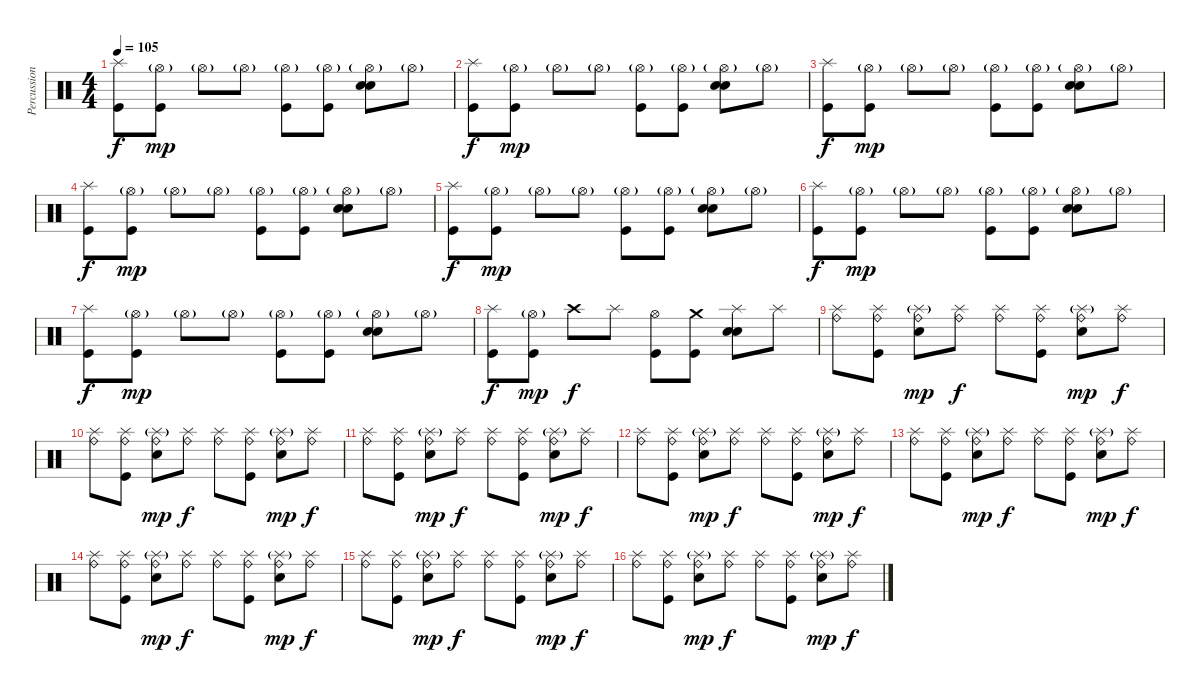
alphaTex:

\track ("Percussion" "Percussion") {instrument percussion}
\staff {score}
\articulation defaults
\ts (4 4)
\tempo 105
\clef neutral
\ks c
("Splash (hit)" "Kick (hit)").8{dy f} ("Hi-Hat (open)"{g} "Kick (hit)").8{dy mp} "Hi-Hat (open)"{g}.8 "Hi-Hat (open)"{g}.8 ("Hi-Hat (open)"{g} "Kick (hit)").8 ("Hi-Hat (open)"{g} "Kick (hit)").8 ("Snare (hit) 2" "Hi-Hat (open)"{g} "Snare (hit) 2").8 "Hi-Hat (open)"{g}.8 |
("Splash (hit)" "Kick (hit)").8{dy f} ("Hi-Hat (open)"{g} "Kick (hit)").8{dy mp} "Hi-Hat (open)"{g}.8 "Hi-Hat (open)"{g}.8 ("Hi-Hat (open)"{g} "Kick (hit)").8 ("Hi-Hat (open)"{g} "Kick (hit)").8 ("Snare (hit) 2" "Hi-Hat (open)"{g} "Snare (hit) 2").8 "Hi-Hat (open)"{g}.8 |
("Splash (hit)" "Kick (hit)").8{dy f} ("Hi-Hat (open)"{g} "Kick (hit)").8{dy mp} "Hi-Hat (open)"{g}.8 "Hi-Hat (open)"{g}.8 ("Hi-Hat (open)"{g} "Kick (hit)").8 ("Hi-Hat (open)"{g} "Kick (hit)").8 ("Snare (hit) 2" "Hi-Hat (open)"{g} "Snare (hit) 2").8 "Hi-Hat (open)"{g}.8 |
("Splash (hit)" "Kick (hit)").8{dy f} ("Hi-Hat (open)"{g} "Kick (hit)").8{dy mp} "Hi-Hat (open)"{g}.8 "Hi-Hat (open)"{g}.8 ("Hi-Hat (open)"{g} "Kick (hit)").8 ("Hi-Hat (open)"{g} "Kick (hit)").8 ("Snare (hit) 2" "Hi-Hat (open)"{g} "Snare (hit) 2").8 "Hi-Hat (open)"{g}.8 |
("Splash (hit)" "Kick (hit)").8{dy f} ("Hi-Hat (open)"{g} "Kick (hit)").8{dy mp} "Hi-Hat (open)"{g}.8 "Hi-Hat (open)"{g}.8 ("Hi-Hat (open)"{g} "Kick (hit)").8 ("Hi-Hat (open)"{g} "Kick (hit)").8 ("Snare (hit) 2" "Hi-Hat (open)"{g} "Snare (hit) 2").8 "Hi-Hat (open)"{g}.8 |
("Splash (hit)" "Kick (hit)").8{dy f} ("Hi-Hat (open)"{g} "Kick (hit)").8{dy mp} "Hi-Hat (open)"{g}.8 "Hi-Hat (open)"{g}.8 ("Hi-Hat (open)"{g} "Kick (hit)").8 ("Hi-Hat (open)"{g} "Kick (hit)").8 ("Snare (hit) 2" "Hi-Hat (open)"{g} "Snare (hit) 2").8 "Hi-Hat (open)"{g}.8 |
("Splash (hit)" "Kick (hit)").8{dy f} ("Hi-Hat (open)"{g} "Kick (hit)").8{dy mp} "Hi-Hat (open)"{g}.8 "Hi-Hat (open)"{g}.8 ("Hi-Hat (open)"{g} "Kick (hit)").8 ("Hi-Hat (open)"{g} "Kick (hit)").8 ("Snare (hit) 2" "Hi-Hat (open)"{g} "Snare (hit) 2").8 "Hi-Hat (open)"{g}.8 |
("Splash (hit)" "Kick (hit)").8{dy f} ("Hi-Hat (open)"{g} "Kick (hit)").8{dy mp} "Crash high (hit)".8{dy f} "Splash (hit)".8 ("Hi-Hat (open)" "Kick (hit)").8 ("Crash medium (hit)" "Kick (hit)").8 ("Snare (hit) 2" "Splash (hit)" "Snare (hit) 2").8 "Splash (hit)".8 |
("Ride (bell)" "Splash (hit)").8 ("Kick (hit)" "Ride (bell)" "Splash (hit)").8 ("Snare (hit) 2" "Ride (bell)" "Splash (hit)"{g}).8{dy mp} ("Ride (bell)" "Splash (hit)").8{dy f} ("Ride (bell)" "Splash (hit)").8 ("Kick (hit)" "Ride (bell)" "Splash (hit)").8 ("Snare (hit) 2" "Ride (bell)" "Splash (hit)"{g}).8{dy mp} ("Ride (bell)" "Splash (hit)").8{dy f} |
("Ride (bell)" "Splash (hit)").8 ("Kick (hit)" "Ride (bell)" "Splash (hit)").8 ("Snare (hit) 2" "Ride (bell)" "Splash (hit)"{g}).8{dy mp} ("Ride (bell)" "Splash (hit)").8{dy f} ("Ride (bell)" "Splash (hit)").8 ("Kick (hit)" "Ride (bell)" "Splash (hit)").8 ("Snare (hit) 2" "Ride (bell)" "Splash (hit)"{g}).8{dy mp} ("Ride (bell)" "Splash (hit)").8{dy f} |
("Ride (bell)" "Splash (hit)").8 ("Kick (hit)" "Ride (bell)" "Splash (hit)").8 ("Snare (hit) 2" "Ride (bell)" "Splash (hit)"{g}).8{dy mp} ("Ride (bell)" "Splash (hit)").8{dy f} ("Ride (bell)" "Splash (hit)").8 ("Kick (hit)" "Ride (bell)" "Splash (hit)").8 ("Snare (hit) 2" "Ride (bell)" "Splash (hit)"{g}).8{dy mp} ("Ride (bell)" "Splash (hit)").8{dy f} |
("Ride (bell)" "Splash (hit)").8 ("Kick (hit)" "Ride (bell)" "Splash (hit)").8 ("Snare (hit) 2" "Ride (bell)" "Splash (hit)"{g}).8{dy mp} ("Ride (bell)" "Splash (hit)").8{dy f} ("Ride (bell)" "Splash (hit)").8 ("Kick (hit)" "Ride (bell)" "Splash (hit)").8 ("Snare (hit) 2" "Ride (bell)" "Splash (hit)"{g}).8{dy mp} ("Ride (bell)" "Splash (hit)").8{dy f} |
("Ride (bell)" "Splash (hit)").8 ("Kick (hit)" "Ride (bell)" "Splash (hit)").8 ("Snare (hit) 2" "Ride (bell)" "Splash (hit)"{g}).8{dy mp} ("Ride (bell)" "Splash (hit)").8{dy f} ("Ride (bell)" "Splash (hit)").8 ("Kick (hit)" "Ride (bell)" "Splash (hit)").8 ("Snare (hit) 2" "Ride (bell)" "Splash (hit)"{g}).8{dy mp} ("Ride (bell)" "Splash (hit)").8{dy f} |
("Ride (bell)" "Splash (hit)").8 ("Kick (hit)" "Ride (bell)" "Splash (hit)").8 ("Snare (hit) 2" "Ride (bell)" "Splash (hit)"{g}).8{dy mp} ("Ride (bell)" "Splash (hit)").8{dy f} ("Ride (bell)" "Splash (hit)").8 ("Kick (hit)" "Ride (bell)" "Splash (hit)").8 ("Snare (hit) 2" "Ride (bell)" "Splash (hit)"{g}).8{dy mp} ("Ride (bell)" "Splash (hit)").8{dy f} |
("Ride (bell)" "Splash (hit)").8 ("Kick (hit)" "Ride (bell)" "Splash (hit)").8 ("Snare (hit) 2" "Ride (bell)" "Splash (hit)"{g}).8{dy mp} ("Ride (bell)" "Splash (hit)").8{dy f} ("Ride (bell)" "Splash (hit)").8 ("Kick (hit)" "Ride (bell)" "Splash (hit)").8 ("Snare (hit) 2" "Ride (bell)" "Splash (hit)"{g}).8{dy mp} ("Ride (bell)" "Splash (hit)").8{dy f} |
("Ride (bell)" "Splash (hit)").8 ("Kick (hit)" "Ride (bell)" "Splash (hit)").8 ("Snare (hit) 2" "Ride (bell)" "Splash (hit)"{g}).8{dy mp} ("Ride (bell)" "Splash (hit)").8{dy f} ("Ride (bell)" "Splash (hit)").8 ("Kick (hit)" "Ride (bell)" "Splash (hit)").8 ("Snare (hit) 2" "Ride (bell)" "Splash (hit)"{g}).8{dy mp} ("Ride (bell)" "Splash (hit)").8{dy f}
